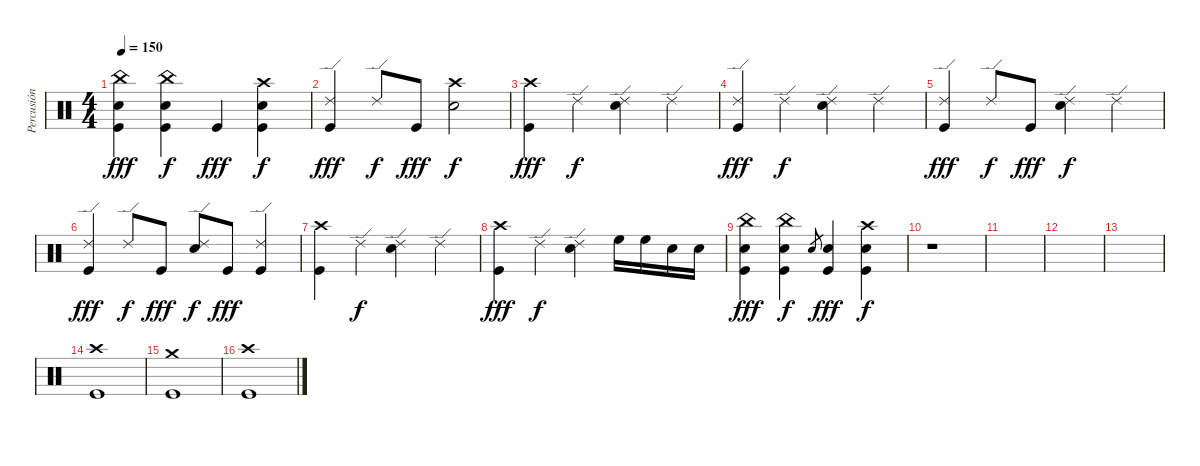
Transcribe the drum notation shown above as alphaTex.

\track ("Percusión" "Percusión") {instrument percussion}
\staff {score}
\articulation defaults
\ts (4 4)
\tempo 150
\clef neutral
\ks c
("China (hit)" "Electric Snare (hit)" "Kick (hit)").4{dy fff} ("China (hit)" "Electric Snare (hit)" "Kick (hit)").4{dy f} "Kick (hit)".4{dy fff} ("Crash high (hit)" "Electric Snare (hit)" "Kick (hit)").4{dy f} |
("Ride (edge) 2" "Kick (hit)").4{dy fff} "Ride (edge) 2".8{dy f} "Kick (hit)".8{dy fff} ("Crash high (hit)" "Electric Snare (hit)").2{dy f} |
("Crash high (hit)" "Kick (hit)").4{dy fff} "Ride (edge) 2".4{dy f} ("Ride (edge) 2" "Electric Snare (hit)").4 "Ride (edge) 2".4 |
("Ride (edge) 2" "Kick (hit)").4{dy fff} "Ride (edge) 2".4{dy f} ("Ride (edge) 2" "Electric Snare (hit)").4 "Ride (edge) 2".4 |
("Ride (edge) 2" "Kick (hit)").4{dy fff} "Ride (edge) 2".8{dy f} "Kick (hit)".8{dy fff} ("Ride (edge) 2" "Electric Snare (hit)").4{dy f} "Ride (edge) 2".4 |
("Ride (edge) 2" "Kick (hit)").4{dy fff} "Ride (edge) 2".8{dy f} "Kick (hit)".8{dy fff} ("Ride (edge) 2" "Electric Snare (hit)").8{dy f} "Kick (hit)".8{dy fff} ("Ride (edge) 2" "Kick (hit)").4 |
("Crash high (hit)" "Kick (hit)").4 "Ride (edge) 2".4{dy f} ("Ride (edge) 2" "Electric Snare (hit)").4 "Ride (edge) 2".4 |
("Crash high (hit)" "Kick (hit)").4{dy fff} "Ride (edge) 2".4{dy f} ("Ride (edge) 2" "Electric Snare (hit)").4 "High Floor Tom (hit)".16 "High Floor Tom (hit)".16 "Electric Snare (hit)".16 "Electric Snare (hit)".16 |
("China (hit)" "Electric Snare (hit)" "Kick (hit)").4{dy fff} ("China (hit)" "Electric Snare (hit)" "Kick (hit)").4{dy f} "Electric Snare (hit)".8{gr} ("Electric Snare (hit)" "Kick (hit)").4{dy fff} ("Crash high (hit)" "Electric Snare (hit)" "Kick (hit)").4{dy f} |
r.1 |
|
|
|
("Crash high (hit)" "Kick (hit)").1 |
("Crash medium (hit)" "Kick (hit)").1 |
("Crash high (hit)" "Kick (hit)").1
